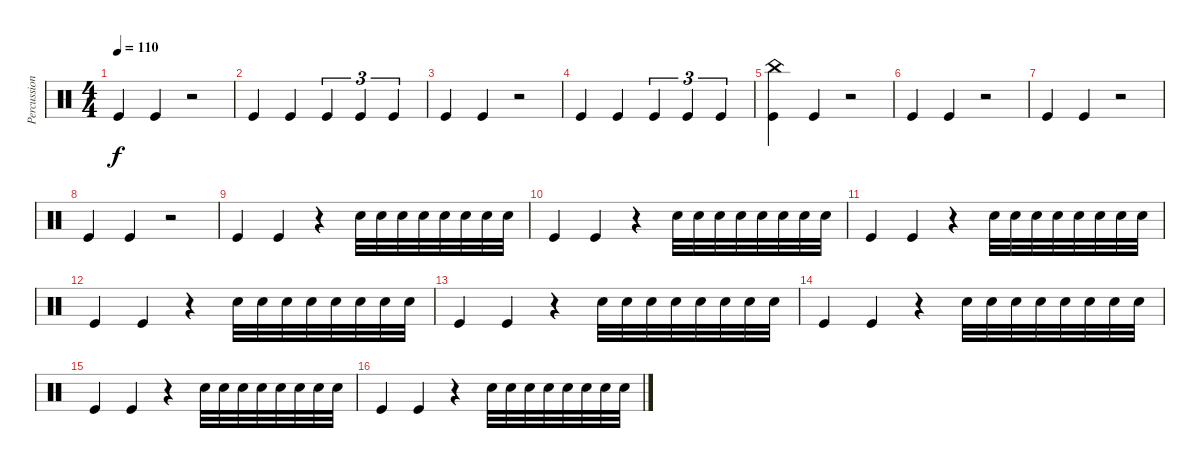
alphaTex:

\track ("Percussions" "Percussion") {instrument percussion}
\staff {score}
\articulation defaults
\ts (4 4)
\tempo 110
\clef neutral
\ks c "Kick (hit)".4{dy f} "Kick (hit)".4
r.2 |
"Kick (hit)".4 "Kick (hit)".4 "Kick (hit)".4{tu (3 2)} "Kick (hit)".4{tu (3 2)} "Kick (hit)".4{tu (3 2)} |
"Kick (hit)".4 "Kick (hit)".4 r.2 |
"Kick (hit)".4 "Kick (hit)".4 "Kick (hit)".4{tu (3 2)} "Kick (hit)".4{tu (3 2)} "Kick (hit)".4{tu (3 2)} |
("China (hit)" "Kick (hit)").4 "Kick (hit)".4 r.2 |
"Kick (hit)".4 "Kick (hit)".4 r.2 |
"Kick (hit)".4 "Kick (hit)".4 r.2 |
"Kick (hit)".4 "Kick (hit)".4 r.2 |
"Kick (hit)".4 "Kick (hit)".4 r.4 "Snare (hit) 2".32 "Snare (hit) 2".32 "Snare (hit) 2".32 "Snare (hit) 2".32 "Snare (hit) 2".32 "Snare (hit) 2".32 "Snare (hit) 2".32 "Snare (hit) 2".32 |
"Kick (hit)".4 "Kick (hit)".4 r.4 "Snare (hit) 2".32 "Snare (hit) 2".32 "Snare (hit) 2".32 "Snare (hit) 2".32 "Snare (hit) 2".32 "Snare (hit) 2".32 "Snare (hit) 2".32 "Snare (hit) 2".32 |
"Kick (hit)".4 "Kick (hit)".4 r.4 "Snare (hit) 2".32 "Snare (hit) 2".32 "Snare (hit) 2".32 "Snare (hit) 2".32 "Snare (hit) 2".32 "Snare (hit) 2".32 "Snare (hit) 2".32 "Snare (hit) 2".32 |
"Kick (hit)".4 "Kick (hit)".4 r.4 "Snare (hit) 2".32 "Snare (hit) 2".32 "Snare (hit) 2".32 "Snare (hit) 2".32 "Snare (hit) 2".32 "Snare (hit) 2".32 "Snare (hit) 2".32 "Snare (hit) 2".32 |
"Kick (hit)".4 "Kick (hit)".4 r.4 "Snare (hit) 2".32 "Snare (hit) 2".32 "Snare (hit) 2".32 "Snare (hit) 2".32 "Snare (hit) 2".32 "Snare (hit) 2".32 "Snare (hit) 2".32 "Snare (hit) 2".32 |
"Kick (hit)".4 "Kick (hit)".4 r.4 "Snare (hit) 2".32 "Snare (hit) 2".32 "Snare (hit) 2".32 "Snare (hit) 2".32 "Snare (hit) 2".32 "Snare (hit) 2".32 "Snare (hit) 2".32 "Snare (hit) 2".32 |
"Kick (hit)".4 "Kick (hit)".4 r.4 "Snare (hit) 2".32 "Snare (hit) 2".32 "Snare (hit) 2".32 "Snare (hit) 2".32 "Snare (hit) 2".32 "Snare (hit) 2".32 "Snare (hit) 2".32 "Snare (hit) 2".32 |
"Kick (hit)".4 "Kick (hit)".4 r.4 "Snare (hit) 2".32 "Snare (hit) 2".32 "Snare (hit) 2".32 "Snare (hit) 2".32 "Snare (hit) 2".32 "Snare (hit) 2".32 "Snare (hit) 2".32 "Snare (hit) 2".32
